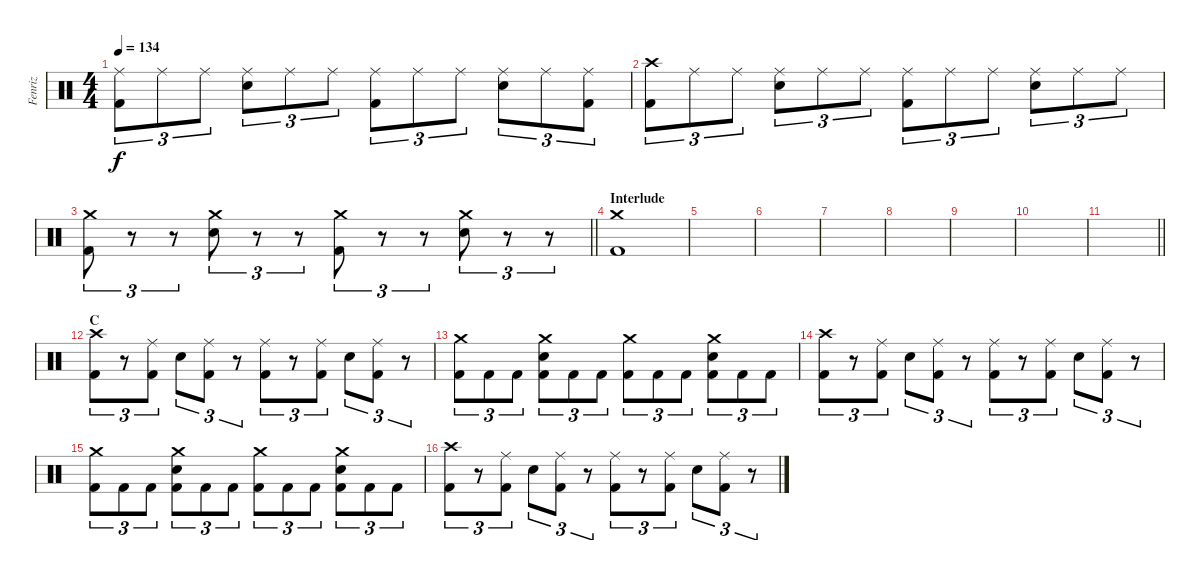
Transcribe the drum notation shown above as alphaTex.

\track ("Fenriz" "Fenriz") {instrument percussion}
\staff {score}
\articulation defaults
\ts (4 4)
\tempo 134
\clef neutral
\ks c
("Ride (middle)" "Kick (hit) 2").8{tu (3 2) dy f} "Ride (middle)".8{tu (3 2)} "Ride (middle)".8{tu (3 2)} ("Ride (middle)" "Snare (hit) 2").8{tu (3 2)} "Ride (middle)".8{tu (3 2)} "Ride (middle)".8{tu (3 2)} ("Ride (middle)" "Kick (hit) 2").8{tu (3 2)} "Ride (middle)".8{tu (3 2)} "Ride (middle)".8{tu (3 2)} ("Ride (middle)" "Snare (hit) 2").8{tu (3 2)} "Ride (middle)".8{tu (3 2)} ("Ride (middle)" "Kick (hit) 2").8{tu (3 2)} |
("Crash high (hit)" "Kick (hit) 2").8{tu (3 2)} "Ride (middle)".8{tu (3 2)} "Ride (middle)".8{tu (3 2)} ("Ride (middle)" "Snare (hit) 2").8{tu (3 2)} "Ride (middle)".8{tu (3 2)} "Ride (middle)".8{tu (3 2)} ("Ride (middle)" "Kick (hit) 2").8{tu (3 2)} "Ride (middle)".8{tu (3 2)} "Ride (middle)".8{tu (3 2)} ("Ride (middle)" "Snare (hit) 2").8{tu (3 2)} "Ride (middle)".8{tu (3 2)} "Ride (middle)".8{tu (3 2)} |
\barLineRight lightlight
("Crash medium (hit)" "Kick (hit) 2").8{tu (3 2)} r.8{tu (3 2)} r.8{tu (3 2)} ("Crash medium (hit)" "Snare (hit) 2").8{tu (3 2)} r.8{tu (3 2)} r.8{tu (3 2)} ("Crash medium (hit)" "Kick (hit) 2").8{tu (3 2)} r.8{tu (3 2)} r.8{tu (3 2)} ("Crash medium (hit)" "Snare (hit) 2").8{tu (3 2)} r.8{tu (3 2)} r.8{tu (3 2)} |
\section ("" "Interlude")
("Crash medium (hit)" "Kick (hit) 2").1 |
|
|
|
|
|
|
\barLineRight lightlight
|
\section ("" "C")
("Crash high (hit)" "Kick (hit) 2").8{tu (3 2)} r.8{tu (3 2)} ("Ride (middle)" "Kick (hit) 2").8{tu (3 2)} "Snare (hit) 2".8{tu (3 2)} ("Ride (middle)" "Kick (hit) 2").8{tu (3 2)} r.8{tu (3 2)} ("Ride (middle)" "Kick (hit) 2").8{tu (3 2)} r.8{tu (3 2)} ("Ride (middle)" "Kick (hit) 2").8{tu (3 2)} "Snare (hit) 2".8{tu (3 2)} ("Ride (middle)" "Kick (hit) 2").8{tu (3 2)} r.8{tu (3 2)} |
("Crash medium (hit)" "Kick (hit) 2").8{tu (3 2)} "Kick (hit) 2".8{tu (3 2)} "Kick (hit) 2".8{tu (3 2)} ("Crash medium (hit)" "Snare (hit) 2" "Kick (hit) 2").8{tu (3 2)} "Kick (hit) 2".8{tu (3 2)} "Kick (hit) 2".8{tu (3 2)} ("Crash medium (hit)" "Kick (hit) 2").8{tu (3 2)} "Kick (hit) 2".8{tu (3 2)} "Kick (hit) 2".8{tu (3 2)} ("Crash medium (hit)" "Snare (hit) 2" "Kick (hit) 2").8{tu (3 2)} "Kick (hit) 2".8{tu (3 2)} "Kick (hit) 2".8{tu (3 2)} |
("Crash high (hit)" "Kick (hit) 2").8{tu (3 2)} r.8{tu (3 2)} ("Ride (middle)" "Kick (hit) 2").8{tu (3 2)} "Snare (hit) 2".8{tu (3 2)} ("Ride (middle)" "Kick (hit) 2").8{tu (3 2)} r.8{tu (3 2)} ("Ride (middle)" "Kick (hit) 2").8{tu (3 2)} r.8{tu (3 2)} ("Ride (middle)" "Kick (hit) 2").8{tu (3 2)} "Snare (hit) 2".8{tu (3 2)} ("Ride (middle)" "Kick (hit) 2").8{tu (3 2)} r.8{tu (3 2)} |
("Crash medium (hit)" "Kick (hit) 2").8{tu (3 2)} "Kick (hit) 2".8{tu (3 2)} "Kick (hit) 2".8{tu (3 2)} ("Crash medium (hit)" "Snare (hit) 2" "Kick (hit) 2").8{tu (3 2)} "Kick (hit) 2".8{tu (3 2)} "Kick (hit) 2".8{tu (3 2)} ("Crash medium (hit)" "Kick (hit) 2").8{tu (3 2)} "Kick (hit) 2".8{tu (3 2)} "Kick (hit) 2".8{tu (3 2)} ("Crash medium (hit)" "Snare (hit) 2" "Kick (hit) 2").8{tu (3 2)} "Kick (hit) 2".8{tu (3 2)} "Kick (hit) 2".8{tu (3 2)} |
("Crash high (hit)" "Kick (hit) 2").8{tu (3 2)} r.8{tu (3 2)} ("Ride (middle)" "Kick (hit) 2").8{tu (3 2)} "Snare (hit) 2".8{tu (3 2)} ("Ride (middle)" "Kick (hit) 2").8{tu (3 2)} r.8{tu (3 2)} ("Ride (middle)" "Kick (hit) 2").8{tu (3 2)} r.8{tu (3 2)} ("Ride (middle)" "Kick (hit) 2").8{tu (3 2)} "Snare (hit) 2".8{tu (3 2)} ("Ride (middle)" "Kick (hit) 2").8{tu (3 2)} r.8{tu (3 2)}
